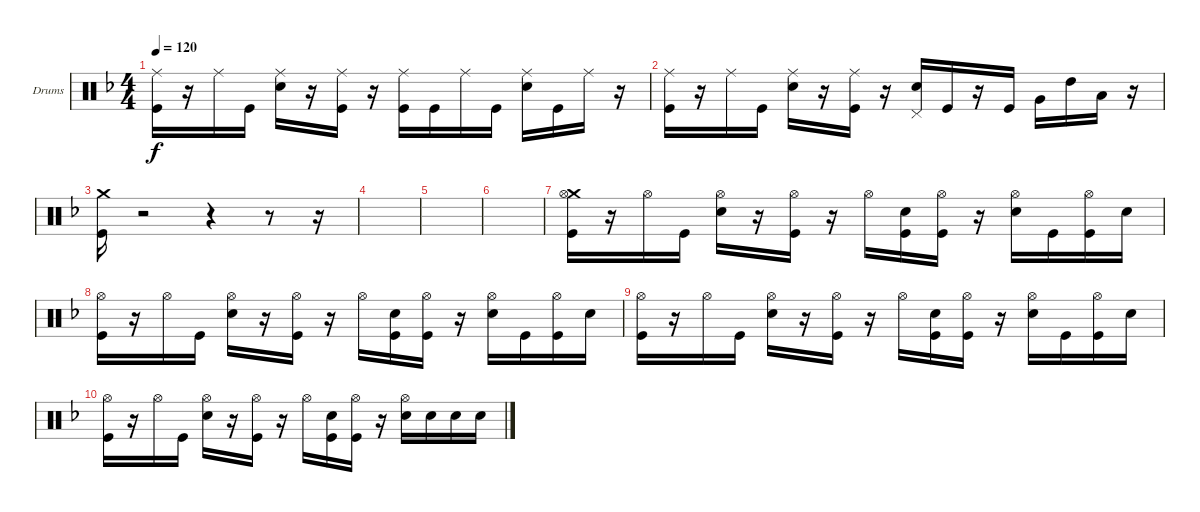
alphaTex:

\defaultSystemsLayout 4
\bracketExtendMode groupsimilarinstruments
\firstSystemTrackNameOrientation horizontal
\otherSystemsTrackNameOrientation horizontal
\track ("Drumkit" "Drums") {instrument percussion}
\staff {score}
\articulation defaults
\ts (4 4)
\tempo 120
\clef neutral
\scale
0.333333
\ks f
("Kick (hit)" "Ride (middle)").16{dy f} r.16 "Ride (middle)".16 "Kick (hit)".16 ("Snare (hit) 2" "Ride (middle)").16 r.16 ("Kick (hit)" "Ride (middle)").16 r.16 ("Ride (middle)" "Kick (hit)").16 "Kick (hit)".16 "Ride (middle)".16 "Kick (hit)".16 ("Ride (middle)" "Snare (hit) 2").16 "Kick (hit)".16 "Ride (middle)".16 r.16 |
\scale
0.333333 ("Kick (hit)" "Ride (middle)").16 r.16 "Ride (middle)".16 "Kick (hit)".16 ("Snare (hit) 2" "Ride (middle)").16 r.16 ("Kick (hit)" "Ride (middle)").16 r.16 ("Snare (hit) 2" "Pedal Hi-Hat (hit)").16 "Kick (hit)".16 r.16 "Kick (hit)".16 "Very Low Tom (hit)".16 "High Tom (hit)".16 "Low Tom (hit)".16 r.16 |
\scale
0.333333 ("Crash medium (hit)" "Kick (hit)").16 r.2 r.4 r.8 r.16 |
\scale
0.333333 |
\scale
0.333333 |
\scale
0.333333 |
\scale
0.333333 ("Crash medium (hit)" "Hi-Hat (open)" "Kick (hit)").16 r.16 "Hi-Hat (open)".16 "Kick (hit)".16 ("Hi-Hat (open)" "Snare (hit) 2").16 r.16 ("Kick (hit)" "Hi-Hat (open)").16 r.16 "Hi-Hat (open)".16 ("Kick (hit)" "Snare (hit) 2").16 ("Kick (hit)" "Hi-Hat (open)").16 r.16 ("Hi-Hat (open)" "Snare (hit) 2").16 "Kick (hit)".16 ("Kick (hit)" "Hi-Hat (open)").16 "Snare (hit) 2".16 |
\scale
0.333333 ("Hi-Hat (open)" "Kick (hit)").16 r.16 "Hi-Hat (open)".16 "Kick (hit)".16 ("Hi-Hat (open)" "Snare (hit) 2").16 r.16 ("Kick (hit)" "Hi-Hat (open)").16 r.16 "Hi-Hat (open)".16 ("Kick (hit)" "Snare (hit) 2").16 ("Kick (hit)" "Hi-Hat (open)").16 r.16 ("Hi-Hat (open)" "Snare (hit) 2").16 "Kick (hit)".16 ("Kick (hit)" "Hi-Hat (open)").16 "Snare (hit) 2".16 |
("Hi-Hat (open)" "Kick (hit)").16 r.16 "Hi-Hat (open)".16 "Kick (hit)".16 ("Hi-Hat (open)" "Snare (hit) 2").16 r.16 ("Kick (hit)" "Hi-Hat (open)").16 r.16 "Hi-Hat (open)".16 ("Kick (hit)" "Snare (hit) 2").16 ("Kick (hit)" "Hi-Hat (open)").16 r.16 ("Hi-Hat (open)" "Snare (hit) 2").16 "Kick (hit)".16 ("Kick (hit)" "Hi-Hat (open)").16 "Snare (hit) 2".16 |
("Hi-Hat (open)" "Kick (hit)").16 r.16 "Hi-Hat (open)".16 "Kick (hit)".16 ("Hi-Hat (open)" "Snare (hit) 2").16 r.16 ("Kick (hit)" "Hi-Hat (open)").16 r.16 "Hi-Hat (open)".16 ("Kick (hit)" "Snare (hit) 2").16 ("Kick (hit)" "Hi-Hat (open)").16 r.16 ("Hi-Hat (open)" "Snare (hit) 2").16 "Snare (hit) 2".16 "Snare (hit) 2".16 "Snare (hit) 2".16
